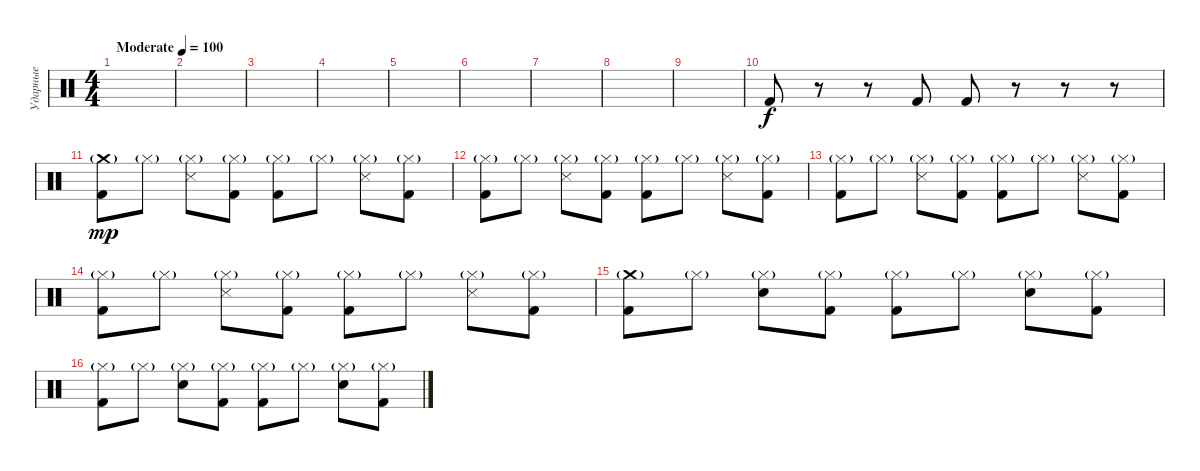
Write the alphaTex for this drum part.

\track ("Ударные" "Ударные") {instrument percussion}
\staff {score}
\articulation defaults
\ts (4 4)
\tempo (100 "Moderate")
\clef neutral
\ks c
|
|
|
|
|
|
|
|
|
"Kick (hit) 2".8 r.8 r.8 "Kick (hit) 2".8 "Kick (hit) 2".8 r.8 r.8 r.8 |
("Crash medium (hit)"{g} "Kick (hit) 2").8{dy mp} "Hi-Hat (closed)"{g}.8 ("Hi-Hat (closed)"{g} "Snare (side stick) 3").8 ("Hi-Hat (closed)"{g} "Kick (hit) 2").8 ("Hi-Hat (closed)"{g} "Kick (hit) 2").8 "Hi-Hat (closed)"{g}.8 ("Hi-Hat (closed)"{g} "Snare (side stick) 3").8 ("Hi-Hat (closed)"{g} "Kick (hit) 2").8 |
("Hi-Hat (closed)"{g} "Kick (hit) 2").8 "Hi-Hat (closed)"{g}.8 ("Hi-Hat (closed)"{g} "Snare (side stick) 3").8 ("Hi-Hat (closed)"{g} "Kick (hit) 2").8 ("Hi-Hat (closed)"{g} "Kick (hit) 2").8 "Hi-Hat (closed)"{g}.8 ("Hi-Hat (closed)"{g} "Snare (side stick) 3").8 ("Hi-Hat (closed)"{g} "Kick (hit) 2").8 |
("Hi-Hat (closed)"{g} "Kick (hit) 2").8 "Hi-Hat (closed)"{g}.8 ("Hi-Hat (closed)"{g} "Snare (side stick) 3").8 ("Hi-Hat (closed)"{g} "Kick (hit) 2").8 ("Hi-Hat (closed)"{g} "Kick (hit) 2").8 "Hi-Hat (closed)"{g}.8 ("Hi-Hat (closed)"{g} "Snare (side stick) 3").8 ("Hi-Hat (closed)"{g} "Kick (hit) 2").8 |
("Hi-Hat (closed)"{g} "Kick (hit) 2").8 "Hi-Hat (closed)"{g}.8 ("Hi-Hat (closed)"{g} "Snare (side stick) 3").8 ("Hi-Hat (closed)"{g} "Kick (hit) 2").8 ("Hi-Hat (closed)"{g} "Kick (hit) 2").8 "Hi-Hat (closed)"{g}.8 ("Hi-Hat (closed)"{g} "Snare (side stick) 3").8 ("Hi-Hat (closed)"{g} "Kick (hit) 2").8 |
("Crash medium (hit)"{g} "Kick (hit) 2").8 "Hi-Hat (closed)"{g}.8 ("Hi-Hat (closed)"{g} "Electric Snare (hit)").8 ("Hi-Hat (closed)"{g} "Kick (hit) 2").8 ("Hi-Hat (closed)"{g} "Kick (hit) 2").8 "Hi-Hat (closed)"{g}.8 ("Hi-Hat (closed)"{g} "Electric Snare (hit)").8 ("Hi-Hat (closed)"{g} "Kick (hit) 2").8 |
("Hi-Hat (closed)"{g} "Kick (hit) 2").8 "Hi-Hat (closed)"{g}.8 ("Hi-Hat (closed)"{g} "Electric Snare (hit)").8 ("Hi-Hat (closed)"{g} "Kick (hit) 2").8 ("Hi-Hat (closed)"{g} "Kick (hit) 2").8 "Hi-Hat (closed)"{g}.8 ("Hi-Hat (closed)"{g} "Electric Snare (hit)").8 ("Hi-Hat (closed)"{g} "Kick (hit) 2").8
